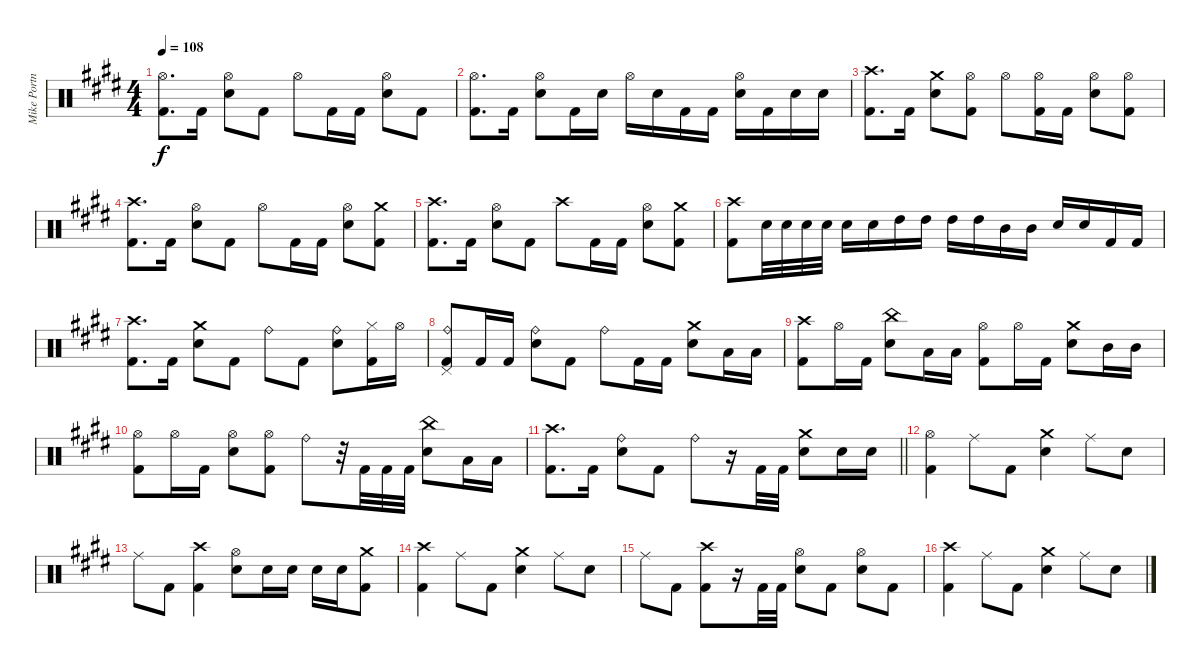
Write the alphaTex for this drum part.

\track ("Mike Portnoy" "Mike Portn") {instrument percussion}
\staff {score}
\articulation defaults
\ts (4 4)
\tempo 108
\clef neutral
\ks e
("Hi-Hat (open)" "Kick (hit) 2").8{d dy f} "Kick (hit) 2".16 ("Hi-Hat (open)" "Snare (hit) 2").8 "Kick (hit) 2".8 "Hi-Hat (open)".8 "Kick (hit) 2".16 "Kick (hit) 2".16 ("Hi-Hat (open)" "Snare (hit) 2").8 "Kick (hit) 2".8 |
("Hi-Hat (open)" "Kick (hit) 2").8{d} "Kick (hit) 2".16 ("Hi-Hat (open)" "Snare (hit) 2").8 "Kick (hit) 2".16 "Snare (hit) 2".16 "Hi-Hat (open)".16 "Snare (hit) 2".16 "Kick (hit) 2".16 "Kick (hit) 2".16 ("Hi-Hat (open)" "Snare (hit) 2").16 "Kick (hit) 2".16 "Snare (hit) 2".16 "Snare (hit) 2".16 |
("Crash high (hit)" "Kick (hit) 2").8{d} "Kick (hit) 2".16 ("Crash medium (hit)" "Snare (hit) 2").8 ("Hi-Hat (open)" "Kick (hit) 2").8 "Hi-Hat (open)".8 ("Hi-Hat (open)" "Kick (hit) 2").16 "Kick (hit) 2".16 ("Hi-Hat (open)" "Snare (hit) 2").8 ("Hi-Hat (open)" "Kick (hit) 2").8 |
("Crash high (hit)" "Kick (hit) 2").8{d} "Kick (hit) 2".16 ("Hi-Hat (open)" "Snare (hit) 2").8 "Kick (hit) 2".8 "Hi-Hat (open)".8 "Kick (hit) 2".16 "Kick (hit) 2".16 ("Hi-Hat (open)" "Snare (hit) 2").8 ("Crash medium (hit)" "Kick (hit) 2").8 |
("Crash high (hit)" "Kick (hit) 2").8{d} "Kick (hit) 2".16 ("Hi-Hat (open)" "Snare (hit) 2").8 "Kick (hit) 2".8 "Crash high (hit)".8 "Kick (hit) 2".16 "Kick (hit) 2".16 ("Hi-Hat (open)" "Snare (hit) 2").8 ("Crash medium (hit)" "Kick (hit) 2").8 |
("Crash high (hit)" "Kick (hit) 2").8 "Snare (hit) 2".32 "Snare (hit) 2".32 "Snare (hit) 2".32 "Snare (hit) 2".32 "Snare (hit) 2".16 "Snare (hit) 2".16 "High Tom (hit)".16 "High Tom (hit)".16 "High Tom (hit)".16 "High Tom (hit)".16 "Mid Tom (hit)".16 "Mid Tom (hit)".16 "Snare (hit) 2".16 "Snare (hit) 2".16 "Kick (hit) 2".16 "Kick (hit) 2".16 |
("Crash high (hit)" "Kick (hit) 2").8{d} "Kick (hit) 2".16 ("Crash medium (hit)" "Snare (hit) 2").8 "Kick (hit) 2".8 "Ride (bell)".8 "Kick (hit) 2".8 ("Ride (bell)" "Snare (hit) 2").8 ("Hi-Hat (closed)" "Kick (hit) 2").16 "Hi-Hat (open)".16 |
("Ride (bell)" "Pedal Hi-Hat (hit)" "Kick (hit) 2").8 "Kick (hit) 2".16 "Kick (hit) 2".16 ("Ride (bell)" "Snare (hit) 2").8 "Kick (hit) 2".8 "Ride (bell)".8 "Kick (hit) 2".16 "Kick (hit) 2".16 ("Crash medium (hit)" "Snare (hit) 2").8 "Low Tom (hit)".16 "Low Tom (hit)".16 |
("Crash high (hit)" "Kick (hit) 2").8 "Hi-Hat (open)".16 "Kick (hit) 2".16 ("China (hit)" "Snare (hit) 2").8 "Low Tom (hit)".16 "Low Tom (hit)".16 ("Hi-Hat (open)" "Kick (hit) 2").8 "Hi-Hat (open)".16 "Kick (hit) 2".16 ("Crash medium (hit)" "Snare (hit) 2").8 "Mid Tom (hit)".16 "Mid Tom (hit)".16 |
("Hi-Hat (open)" "Kick (hit) 2").8 "Hi-Hat (open)".16 "Kick (hit) 2".16 ("Hi-Hat (open)" "Snare (hit) 2").8 ("Hi-Hat (open)" "Kick (hit) 2").8 "Ride (bell)".8 r.32 "Kick (hit) 2".32 "Kick (hit) 2".32 "Kick (hit) 2".32 ("China (hit)" "Snare (hit) 2").8 "Low Tom (hit)".16 "Low Tom (hit)".16 |
\barLineRight lightlight
("Crash high (hit)" "Kick (hit) 2").8{d} "Kick (hit) 2".16 ("Ride (bell)" "Snare (hit) 2").8 "Kick (hit) 2".8 "Ride (bell)".8 r.16 "Kick (hit) 2".32 "Kick (hit) 2".32 ("Crash medium (hit)" "Snare (hit) 2").8 "Snare (hit) 2".16 "Snare (hit) 2".16 |
("Hi-Hat (open)" "Kick (hit) 2").4 "Ride (middle)".8 "Kick (hit) 2".8 ("Crash medium (hit)" "Snare (hit) 2").4 "Ride (middle)".8 "Snare (hit) 2".8 |
"Ride (middle)".8 "Kick (hit) 2".8 ("Crash high (hit)" "Kick (hit) 2").4 ("Hi-Hat (open)" "Snare (hit) 2").8 "Snare (hit) 2".16 "Snare (hit) 2".16 "Snare (hit) 2".16 "Snare (hit) 2".16 ("Crash medium (hit)" "Kick (hit) 2").8 |
("Crash high (hit)" "Kick (hit) 2").4 "Ride (middle)".8 "Kick (hit) 2".8 ("Crash medium (hit)" "Snare (hit) 2").4 "Ride (middle)".8 "Snare (hit) 2".8 |
"Ride (middle)".8 "Kick (hit) 2".8 ("Crash high (hit)" "Kick (hit) 2").8 r.16 "Kick (hit) 2".32 "Kick (hit) 2".32 ("Hi-Hat (open)" "Snare (hit) 2").8 "Kick (hit) 2".8 ("Hi-Hat (open)" "Snare (hit) 2").8 "Kick (hit) 2".8 |
("Crash high (hit)" "Kick (hit) 2").4 "Ride (middle)".8 "Kick (hit) 2".8 ("Crash medium (hit)" "Snare (hit) 2").4 "Ride (middle)".8 "Snare (hit) 2".8
